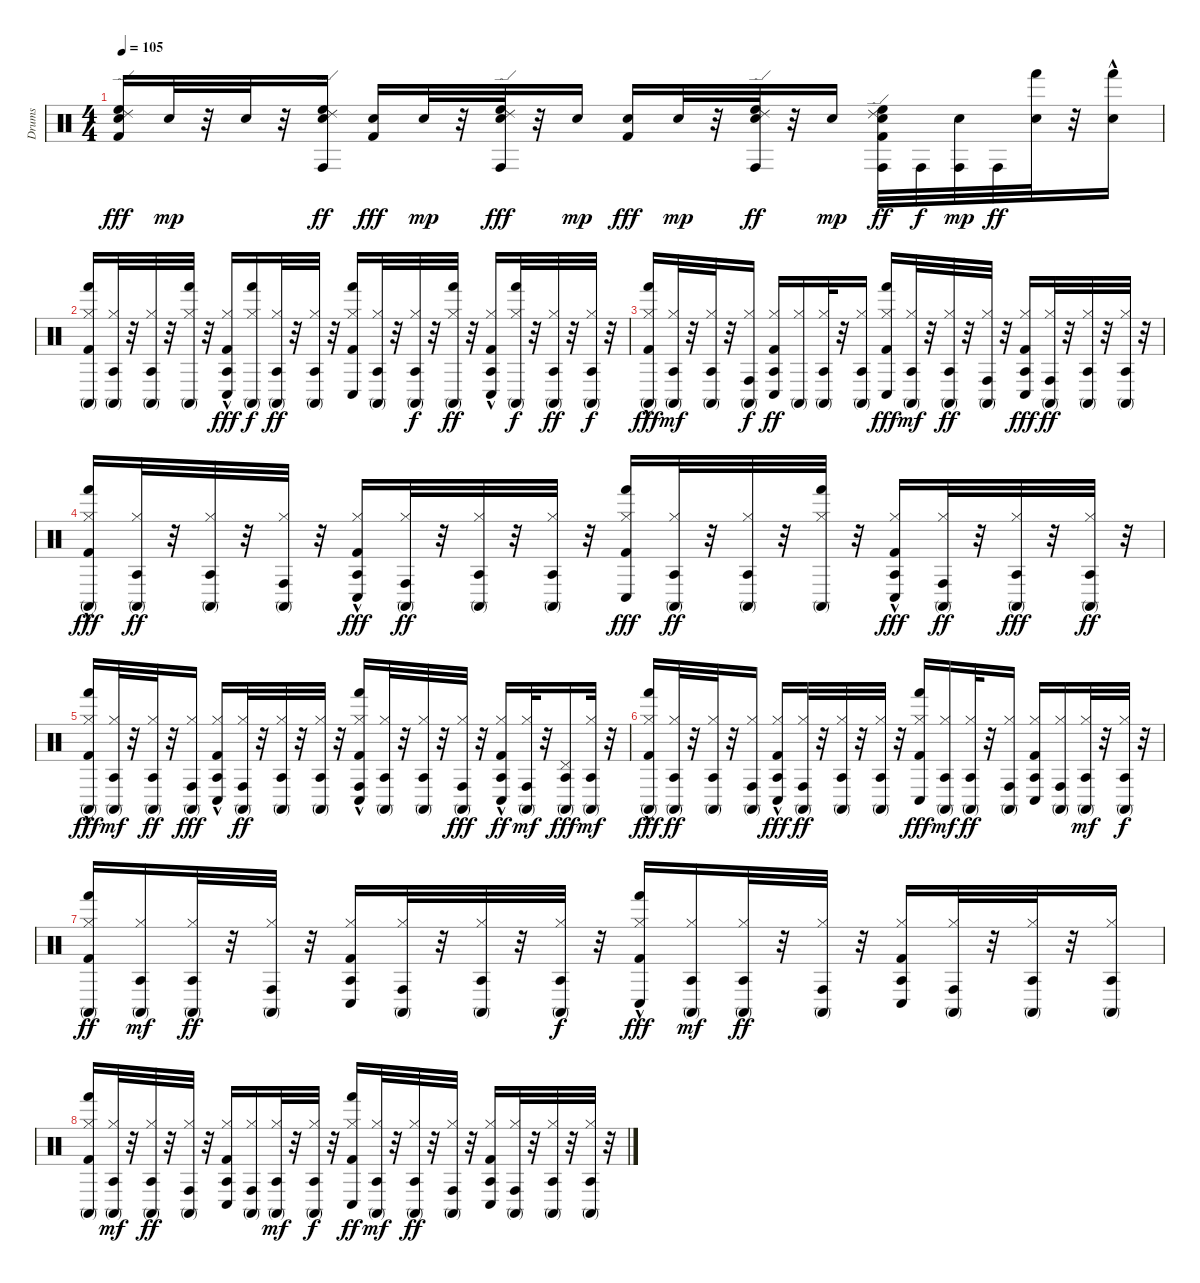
\track ("Drums" "Drums") {instrument percussion}
\staff {score}
\articulation defaults
\ts (4 4)
\tempo 105
\clef neutral
\ks c
("Snare (hit) 2" "Kick (hit) 2" "Ride (edge) 2" "High Floor Tom (hit)").16{dy fff} "Snare (hit) 2".32{dy mp} r.32 "Snare (hit) 2".32 r.32 ("High Floor Tom (hit)" "Ride (edge) 2" "Snare (hit) 2" "Conga high (hit)").16{dy ff} ("Snare (hit) 2" "Kick (hit) 2").16{dy fff} "Snare (hit) 2".32{dy mp} r.32 ("High Floor Tom (hit)" "Ride (edge) 2" "Snare (hit) 2" "Conga high (hit)").32{dy fff} r.32 "Snare (hit) 2".16{dy mp} ("Snare (hit) 2" "Kick (hit) 2").16{dy fff} "Snare (hit) 2".32{dy mp} r.32 ("Snare (hit) 2" "Ride (edge) 2" "High Floor Tom (hit)" "Conga high (hit)").32{dy ff} r.32 "Snare (hit) 2".16{dy mp} ("High Floor Tom (hit)" "Ride (edge) 2" "Snare (hit) 2" "Kick (hit) 2" "Conga high (hit)").32{dy ff} "Conga high (hit)".32{dy f} ("Snare (hit) 2" "Conga high (hit)").32{dy mp} "Conga high (hit)".32{dy ff} ("Snare (hit) 2" "Hand (hit)").32 r.32 ("Snare (hit) 2"{hac} "Hand (hit)").16 |
("Hi-Hat (closed)" "Kick (hit) 2" "Conga high (mute)" "Hand (hit)").16 ("Agogo tow (hit)" "Conga high (mute)" "Hi-Hat (closed)").32 r.32 ("Agogo tow (hit)" "Hi-Hat (closed)" "Conga high (mute)").32 r.32 ("Hi-Hat (closed)" "Conga high (mute)" "Hand (hit)").32 r.32 ("Hi-Hat (closed)" "Kick (hit) 2"{hac} "Conga low (hit)" "Agogo tow (hit)").16{dy fff} ("Hi-Hat (closed)" "Conga high (mute)" "Hand (hit)").16{dy f} ("Agogo tow (hit)" "Hi-Hat (closed)" "Conga high (mute)").32{dy ff} r.32 ("Agogo tow (hit)" "Hi-Hat (closed)" "Conga high (mute)").32 r.32 ("Hi-Hat (closed)" "Kick (hit) 2" "Conga low (hit)" "Hand (hit)").16 ("Agogo tow (hit)" "Hi-Hat (closed)" "Conga high (mute)").32 r.32 ("Agogo tow (hit)" "Hi-Hat (closed)" "Conga high (mute)").32{dy f} r.32 ("Hand (hit)" "Conga high (mute)" "Hi-Hat (closed)").32{dy ff} r.32 ("Agogo tow (hit)" "Hi-Hat (closed)" "Kick (hit) 2"{hac} "Conga low (hit)").16 ("Hand (hit)" "Hi-Hat (closed)" "Conga high (mute)").32{dy f} r.32 ("Agogo tow (hit)" "Conga high (mute)" "Hi-Hat (closed)").32{dy ff} r.32 ("Agogo tow (hit)" "Conga high (mute)" "Hi-Hat (closed)").32{dy f} r.32 |
("Conga high (mute)" "Hi-Hat (closed)" "Kick (hit) 2"{hac} "Hand (hit)").16{dy fff} ("Agogo tow (hit)" "Conga high (mute)" "Hi-Hat (closed)").32{dy mf} r.32 ("Agogo tow (hit)" "Hi-Hat (closed)" "Conga high (mute)").32 r.32 ("Conga high (mute)" "Hi-Hat (closed)" "Conga high (hit)").16{dy f} ("Agogo tow (hit)" "Conga low (hit)" "Kick (hit) 2" "Hi-Hat (closed)").16{dy ff} ("Conga high (mute)" "Hi-Hat (closed)").16 ("Agogo tow (hit)" "Conga high (mute)" "Hi-Hat (closed)").32 r.32 ("Agogo tow (hit)" "Conga high (mute)" "Hi-Hat (closed)").16 ("Hand (hit)" "Conga low (hit)" "Hi-Hat (closed)" "Kick (hit) 2").16{dy fff} ("Agogo tow (hit)" "Conga high (mute)" "Hi-Hat (closed)").32{dy mf} r.32 ("Agogo tow (hit)" "Conga high (mute)" "Hi-Hat (closed)").32{dy ff} r.32 ("Conga high (mute)" "Hi-Hat (closed)" "Conga high (hit)").32 r.32 ("Agogo tow (hit)" "Conga low (hit)" "Hi-Hat (closed)" "Kick (hit) 2").16{dy fff} ("Conga high (hit)" "Conga high (mute)" "Hi-Hat (closed)").32{dy ff} r.32 ("Agogo tow (hit)" "Conga high (mute)" "Hi-Hat (closed)").32 r.32 ("Agogo tow (hit)" "Conga high (mute)" "Hi-Hat (closed)").32 r.32 |
("Hand (hit)" "Conga high (mute)" "Hi-Hat (closed)" "Kick (hit) 2"{hac}).16{dy fff} ("Agogo tow (hit)" "Conga high (mute)" "Hi-Hat (closed)").32{dy ff} r.32 ("Agogo tow (hit)" "Conga high (mute)" "Hi-Hat (closed)").32 r.32 ("Conga high (mute)" "Hi-Hat (closed)" "Conga high (hit)").32 r.32 ("Agogo tow (hit)" "Conga low (hit)" "Hi-Hat (closed)" "Kick (hit) 2"{hac}).16{dy fff} ("Conga high (mute)" "Hi-Hat (closed)" "Conga high (hit)").32{dy ff} r.32 ("Agogo tow (hit)" "Conga high (mute)" "Hi-Hat (closed)").32 r.32 ("Conga high (mute)" "Hi-Hat (closed)" "Agogo tow (hit)").32 r.32 ("Hand (hit)" "Conga low (hit)" "Hi-Hat (closed)" "Kick (hit) 2").16{dy fff} ("Agogo tow (hit)" "Conga high (mute)" "Hi-Hat (closed)").32{dy ff} r.32 ("Agogo tow (hit)" "Conga high (mute)" "Hi-Hat (closed)").32 r.32 ("Hand (hit)" "Conga high (mute)" "Hi-Hat (closed)").32 r.32 ("Agogo tow (hit)" "Conga low (hit)" "Hi-Hat (closed)" "Kick (hit) 2"{hac}).16{dy fff} ("Conga high (mute)" "Hi-Hat (closed)" "Conga high (hit)").32{dy ff} r.32 ("Agogo tow (hit)" "Conga high (mute)" "Hi-Hat (closed)").32{dy fff} r.32 ("Hi-Hat (closed)" "Conga high (mute)" "Agogo tow (hit)").32{dy ff} r.32 |
("Hand (hit)" "Conga high (mute)" "Hi-Hat (closed)" "Kick (hit) 2"{hac}).16{dy fff} ("Agogo tow (hit)" "Conga high (mute)" "Hi-Hat (closed)").32{dy mf} r.32 ("Agogo tow (hit)" "Conga high (mute)" "Hi-Hat (closed)").32{dy ff} r.32 ("Conga high (mute)" "Hi-Hat (closed)" "Conga high (hit)").16{dy fff} ("Agogo tow (hit)" "Conga low (hit)" "Hi-Hat (closed)" "Kick (hit) 2"{hac}).16 ("Conga high (mute)" "Hi-Hat (closed)" "Conga high (hit)").32{dy ff} r.32 ("Conga high (mute)" "Hi-Hat (closed)" "Agogo tow (hit)").32 r.32 ("Conga high (mute)" "Hi-Hat (closed)" "Agogo tow (hit)").32 r.32 ("Hand (hit)" "Conga high (hit)" "Conga low (hit)" "Kick (hit) 2"{hac} "Hi-Hat (closed)").16 ("Agogo tow (hit)" "Conga high (mute)" "Hi-Hat (closed)").32 r.32 ("Agogo tow (hit)" "Conga high (mute)" "Hi-Hat (closed)").32 r.32 ("Conga high (mute)" "Hi-Hat (closed)" "Conga high (hit)").32{dy fff} r.32 ("Agogo tow (hit)" "Conga low (hit)" "Kick (hit) 2"{hac} "Hi-Hat (closed)").16{dy ff} ("Conga high (hit)" "Conga high (mute)" "Hi-Hat (closed)").32{dy mf} r.32 ("Agogo tow (hit)" "Conga high (mute)" "Pedal Hi-Hat (hit)").16{dy fff} ("Agogo tow (hit)" "Conga high (mute)" "Hi-Hat (closed)").32{dy mf} r.32 |
("Hand (hit)" "Conga high (mute)" "Hi-Hat (closed)" "Kick (hit) 2"{hac}).16{dy fff} ("Agogo tow (hit)" "Conga high (mute)" "Hi-Hat (closed)").32{dy ff} r.32 ("Agogo tow (hit)" "Conga high (mute)" "Hi-Hat (closed)").32 r.32 ("Conga high (mute)" "Hi-Hat (closed)" "Conga high (hit)").16 ("Agogo tow (hit)" "Conga low (hit)" "Hi-Hat (closed)" "Kick (hit) 2"{hac}).16{dy fff} ("Conga high (mute)" "Hi-Hat (closed)" "Conga high (hit)").32{dy ff} r.32 ("Conga high (mute)" "Hi-Hat (closed)" "Agogo tow (hit)").32 r.32 ("Conga high (mute)" "Hi-Hat (closed)" "Agogo tow (hit)").32 r.32 ("Hand (hit)" "Hi-Hat (closed)" "Kick (hit) 2" "Conga low (hit)").16{dy fff} ("Agogo tow (hit)" "Hi-Hat (closed)" "Conga high (mute)").16{dy mf} ("Conga high (mute)" "Hi-Hat (closed)" "Agogo tow (hit)").32{dy ff} r.32 ("Hi-Hat (closed)" "Conga high (mute)" "Conga high (hit)").16 ("Hi-Hat (closed)" "Kick (hit) 2" "Conga low (hit)" "Agogo tow (hit)").16 ("Hi-Hat (closed)" "Conga high (mute)" "Conga high (hit)").16 ("Agogo tow (hit)" "Hi-Hat (closed)" "Conga high (mute)").32{dy mf} r.32 ("Hi-Hat (closed)" "Conga high (mute)" "Agogo tow (hit)").32{dy f} r.32 |
("Hi-Hat (closed)" "Kick (hit) 2" "Conga high (mute)" "Hand (hit)").16{dy ff} ("Agogo tow (hit)" "Conga high (mute)" "Hi-Hat (closed)").16{dy mf} ("Hi-Hat (closed)" "Conga high (mute)" "Agogo tow (hit)").32{dy ff} r.32 ("Hi-Hat (closed)" "Conga high (mute)" "Conga high (hit)").32 r.32 ("Agogo tow (hit)" "Kick (hit) 2" "Hi-Hat (closed)" "Conga low (hit)").16 ("Hi-Hat (closed)" "Conga high (mute)" "Conga high (hit)").32 r.32 ("Agogo tow (hit)" "Conga high (mute)" "Hi-Hat (closed)").32 r.32 ("Agogo tow (hit)" "Conga high (mute)" "Hi-Hat (closed)").32{dy f} r.32 ("Hi-Hat (closed)" "Kick (hit) 2"{hac} "Conga low (hit)" "Hand (hit)").16{dy fff} ("Agogo tow (hit)" "Hi-Hat (closed)" "Conga high (mute)").16{dy mf} ("Hi-Hat (closed)" "Conga high (mute)" "Agogo tow (hit)").32{dy ff} r.32 ("Conga high (mute)" "Hi-Hat (closed)" "Conga high (hit)").32 r.32 ("Agogo tow (hit)" "Hi-Hat (closed)" "Kick (hit) 2" "Conga low (hit)").16 ("Conga high (mute)" "Hi-Hat (closed)" "Conga high (hit)").32 r.32 ("Agogo tow (hit)" "Conga high (mute)" "Hi-Hat (closed)").32 r.32 ("Agogo tow (hit)" "Conga high (mute)" "Hi-Hat (closed)").16 |
("Hand (hit)" "Kick (hit) 2" "Hi-Hat (closed)" "Conga high (mute)").16 ("Agogo tow (hit)" "Hi-Hat (closed)" "Conga high (mute)").32{dy mf} r.32 ("Agogo tow (hit)" "Hi-Hat (closed)" "Conga high (mute)").32{dy ff} r.32 ("Conga high (mute)" "Hi-Hat (closed)" "Conga high (hit)").32 r.32 ("Kick (hit) 2" "Hi-Hat (closed)" "Conga low (hit)" "Agogo tow (hit)").16 ("Hi-Hat (closed)" "Conga high (mute)" "Conga high (hit)").16 ("Agogo tow (hit)" "Hi-Hat (closed)" "Conga high (mute)").32{dy mf} r.32 ("Conga high (mute)" "Hi-Hat (closed)" "Agogo tow (hit)").32{dy f} r.32 ("Hi-Hat (closed)" "Kick (hit) 2" "Conga low (hit)" "Hand (hit)").16{dy ff} ("Agogo tow (hit)" "Conga high (mute)" "Hi-Hat (closed)").32{dy mf} r.32 ("Conga high (mute)" "Hi-Hat (closed)" "Agogo tow (hit)").32{dy ff} r.32 ("Conga high (mute)" "Hi-Hat (closed)" "Conga high (hit)").32 r.32 ("Agogo tow (hit)" "Conga low (hit)" "Kick (hit) 2" "Hi-Hat (closed)").16 ("Conga high (mute)" "Hi-Hat (closed)" "Conga high (hit)").32 r.32 ("Agogo tow (hit)" "Conga high (mute)" "Hi-Hat (closed)").32 r.32 ("Agogo tow (hit)" "Conga high (mute)" "Hi-Hat (closed)").32 r.32
